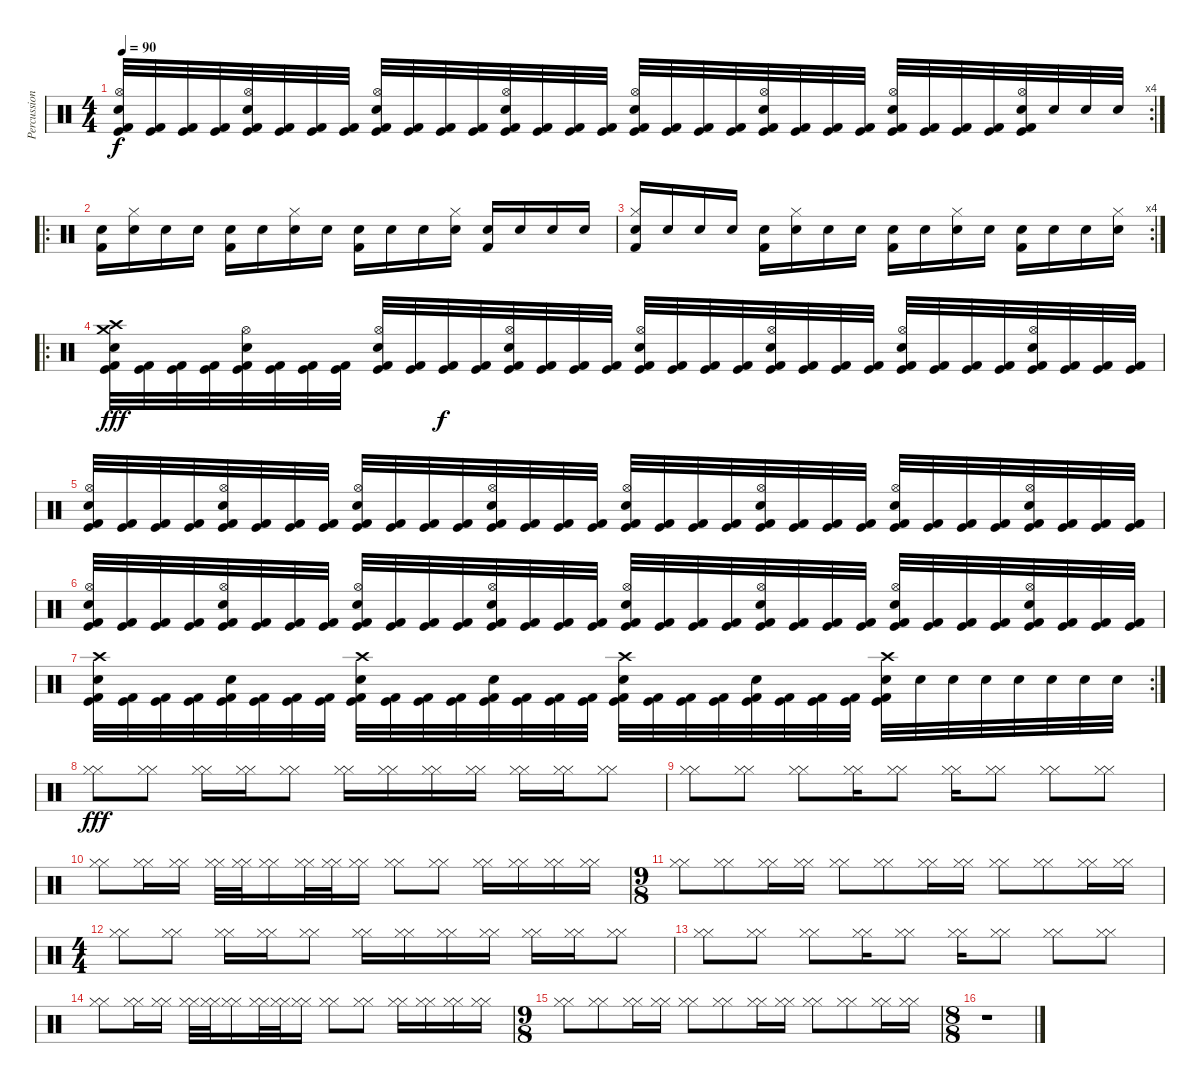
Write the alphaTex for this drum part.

\track ("Percussion" "Percussion") {instrument percussion}
\staff {score}
\articulation defaults
\rc 4
\ts (4 4)
\tempo 90
\clef neutral
\ks c
("Kick (hit) 2" "Hi-Hat (open)" "Electric Snare (hit)" "Kick (hit)").32{dy f} ("Kick (hit) 2" "Kick (hit)").32 ("Kick (hit) 2" "Kick (hit)").32 ("Kick (hit) 2" "Kick (hit)").32 ("Kick (hit) 2" "Hi-Hat (open)" "Kick (hit)" "Electric Snare (hit)").32 ("Kick (hit) 2" "Kick (hit)").32 ("Kick (hit) 2" "Kick (hit)").32 ("Kick (hit) 2" "Kick (hit)").32 ("Kick (hit) 2" "Hi-Hat (open)" "Electric Snare (hit)" "Kick (hit)").32 ("Kick (hit) 2" "Kick (hit)").32 ("Kick (hit) 2" "Kick (hit)").32 ("Kick (hit) 2" "Kick (hit)").32 ("Kick (hit) 2" "Hi-Hat (open)" "Electric Snare (hit)" "Kick (hit)").32 ("Kick (hit) 2" "Kick (hit)").32 ("Kick (hit) 2" "Kick (hit)").32 ("Kick (hit) 2" "Kick (hit)").32 ("Kick (hit) 2" "Hi-Hat (open)" "Electric Snare (hit)" "Kick (hit)").32 ("Kick (hit) 2" "Kick (hit)").32 ("Kick (hit) 2" "Kick (hit)").32 ("Kick (hit) 2" "Kick (hit)").32 ("Kick (hit) 2" "Electric Snare (hit)" "Hi-Hat (open)" "Kick (hit)").32 ("Kick (hit) 2" "Kick (hit)").32 ("Kick (hit) 2" "Kick (hit)").32 ("Kick (hit) 2" "Kick (hit)").32 ("Kick (hit) 2" "Hi-Hat (open)" "Electric Snare (hit)" "Kick (hit)").32 ("Kick (hit) 2" "Kick (hit)").32 ("Kick (hit) 2" "Kick (hit)").32 ("Kick (hit) 2" "Kick (hit)").32 ("Kick (hit) 2" "Hi-Hat (open)" "Electric Snare (hit)" "Kick (hit)").32 "Electric Snare (hit)".32 "Electric Snare (hit)".32 "Electric Snare (hit)".32 |
\ro
("Electric Snare (hit)" "Kick (hit) 2").16 ("Hi-Hat (closed)" "Snare (hit)").16 "Electric Snare (hit)".16 "Electric Snare (hit)".16 ("Electric Snare (hit)" "Kick (hit) 2").16 "Electric Snare (hit)".16 ("Hi-Hat (closed)" "Snare (hit)").16 "Electric Snare (hit)".16 ("Electric Snare (hit)" "Kick (hit) 2").16 "Electric Snare (hit)".16 "Electric Snare (hit)".16 ("Hi-Hat (closed)" "Snare (hit)").16 ("Electric Snare (hit)" "Kick (hit) 2").16 "Electric Snare (hit)".16 "Electric Snare (hit)".16 "Electric Snare (hit)".16 |
\rc 4
("Hi-Hat (closed)" "Snare (hit)" "Kick (hit) 2").16 "Electric Snare (hit)".16 "Electric Snare (hit)".16 "Electric Snare (hit)".16 ("Electric Snare (hit)" "Kick (hit) 2").16 ("Hi-Hat (closed)" "Snare (hit)").16 "Electric Snare (hit)".16 "Electric Snare (hit)".16 ("Electric Snare (hit)" "Kick (hit) 2").16 "Electric Snare (hit)".16 ("Hi-Hat (closed)" "Snare (hit)").16 "Electric Snare (hit)".16 ("Electric Snare (hit)" "Kick (hit) 2").16 "Electric Snare (hit)".16 "Electric Snare (hit)".16 ("Hi-Hat (closed)" "Snare (hit)").16 |
\ro
("Kick (hit) 2" "Crash medium (hit)" "Crash high (hit)" "Electric Snare (hit)" "Kick (hit)").32{dy fff} ("Kick (hit) 2" "Kick (hit)").32 ("Kick (hit) 2" "Kick (hit)").32 ("Kick (hit) 2" "Kick (hit)").32 ("Kick (hit) 2" "Hi-Hat (open)" "Electric Snare (hit)" "Kick (hit)").32 ("Kick (hit) 2" "Kick (hit)").32 ("Kick (hit) 2" "Kick (hit)").32 ("Kick (hit) 2" "Kick (hit)").32 ("Kick (hit) 2" "Hi-Hat (open)" "Electric Snare (hit)" "Kick (hit)").32 ("Kick (hit) 2" "Kick (hit)").32 ("Kick (hit) 2" "Kick (hit)").32{dy f} ("Kick (hit) 2" "Kick (hit)").32 ("Kick (hit) 2" "Hi-Hat (open)" "Electric Snare (hit)" "Kick (hit)").32 ("Kick (hit) 2" "Kick (hit)").32 ("Kick (hit) 2" "Kick (hit)").32 ("Kick (hit) 2" "Kick (hit)").32 ("Kick (hit) 2" "Hi-Hat (open)" "Electric Snare (hit)" "Kick (hit)").32 ("Kick (hit) 2" "Kick (hit)").32 ("Kick (hit) 2" "Kick (hit)").32 ("Kick (hit) 2" "Kick (hit)").32 ("Kick (hit) 2" "Hi-Hat (open)" "Electric Snare (hit)" "Kick (hit)").32 ("Kick (hit) 2" "Kick (hit)").32 ("Kick (hit) 2" "Kick (hit)").32 ("Kick (hit) 2" "Kick (hit)").32 ("Kick (hit) 2" "Hi-Hat (open)" "Electric Snare (hit)" "Kick (hit)").32 ("Kick (hit) 2" "Kick (hit)").32 ("Kick (hit) 2" "Kick (hit)").32 ("Kick (hit) 2" "Kick (hit)").32 ("Kick (hit) 2" "Hi-Hat (open)" "Electric Snare (hit)" "Kick (hit)").32 ("Kick (hit) 2" "Kick (hit)").32 ("Kick (hit) 2" "Kick (hit)").32 ("Kick (hit) 2" "Kick (hit)").32 |
("Kick (hit) 2" "Hi-Hat (open)" "Electric Snare (hit)" "Kick (hit)").32 ("Kick (hit) 2" "Kick (hit)").32 ("Kick (hit) 2" "Kick (hit)").32 ("Kick (hit) 2" "Kick (hit)").32 ("Kick (hit) 2" "Hi-Hat (open)" "Electric Snare (hit)" "Kick (hit)").32 ("Kick (hit) 2" "Kick (hit)").32 ("Kick (hit) 2" "Kick (hit)").32 ("Kick (hit) 2" "Kick (hit)").32 ("Kick (hit) 2" "Hi-Hat (open)" "Electric Snare (hit)" "Kick (hit)").32 ("Kick (hit) 2" "Kick (hit)").32 ("Kick (hit) 2" "Kick (hit)").32 ("Kick (hit) 2" "Kick (hit)").32 ("Kick (hit) 2" "Hi-Hat (open)" "Electric Snare (hit)" "Kick (hit)").32 ("Kick (hit) 2" "Kick (hit)").32 ("Kick (hit) 2" "Kick (hit)").32 ("Kick (hit) 2" "Kick (hit)").32 ("Kick (hit) 2" "Hi-Hat (open)" "Electric Snare (hit)" "Kick (hit)").32 ("Kick (hit) 2" "Kick (hit)").32 ("Kick (hit) 2" "Kick (hit)").32 ("Kick (hit) 2" "Kick (hit)").32 ("Kick (hit) 2" "Hi-Hat (open)" "Electric Snare (hit)" "Kick (hit)").32 ("Kick (hit) 2" "Kick (hit)").32 ("Kick (hit) 2" "Kick (hit)").32 ("Kick (hit) 2" "Kick (hit)").32 ("Kick (hit) 2" "Hi-Hat (open)" "Electric Snare (hit)" "Kick (hit)").32 ("Kick (hit) 2" "Kick (hit)").32 ("Kick (hit) 2" "Kick (hit)").32 ("Kick (hit) 2" "Kick (hit)").32 ("Kick (hit) 2" "Hi-Hat (open)" "Electric Snare (hit)" "Kick (hit)").32 ("Kick (hit) 2" "Kick (hit)").32 ("Kick (hit) 2" "Kick (hit)").32 ("Kick (hit) 2" "Kick (hit)").32 |
("Kick (hit) 2" "Hi-Hat (open)" "Electric Snare (hit)" "Kick (hit)").32 ("Kick (hit) 2" "Kick (hit)").32 ("Kick (hit) 2" "Kick (hit)").32 ("Kick (hit) 2" "Kick (hit)").32 ("Kick (hit) 2" "Hi-Hat (open)" "Electric Snare (hit)" "Kick (hit)").32 ("Kick (hit) 2" "Kick (hit)").32 ("Kick (hit) 2" "Kick (hit)").32 ("Kick (hit) 2" "Kick (hit)").32 ("Kick (hit) 2" "Hi-Hat (open)" "Electric Snare (hit)" "Kick (hit)").32 ("Kick (hit) 2" "Kick (hit)").32 ("Kick (hit) 2" "Kick (hit)").32 ("Kick (hit) 2" "Kick (hit)").32 ("Kick (hit) 2" "Hi-Hat (open)" "Electric Snare (hit)" "Kick (hit)").32 ("Kick (hit) 2" "Kick (hit)").32 ("Kick (hit) 2" "Kick (hit)").32 ("Kick (hit) 2" "Kick (hit)").32 ("Kick (hit) 2" "Hi-Hat (open)" "Electric Snare (hit)" "Kick (hit)").32 ("Kick (hit) 2" "Kick (hit)").32 ("Kick (hit) 2" "Kick (hit)").32 ("Kick (hit) 2" "Kick (hit)").32 ("Kick (hit) 2" "Hi-Hat (open)" "Electric Snare (hit)" "Kick (hit)").32 ("Kick (hit) 2" "Kick (hit)").32 ("Kick (hit) 2" "Kick (hit)").32 ("Kick (hit) 2" "Kick (hit)").32 ("Kick (hit) 2" "Hi-Hat (open)" "Electric Snare (hit)" "Kick (hit)").32 ("Kick (hit) 2" "Kick (hit)").32 ("Kick (hit) 2" "Kick (hit)").32 ("Kick (hit) 2" "Kick (hit)").32 ("Kick (hit) 2" "Hi-Hat (open)" "Electric Snare (hit)" "Kick (hit)").32 ("Kick (hit) 2" "Kick (hit)").32 ("Kick (hit) 2" "Kick (hit)").32 ("Kick (hit) 2" "Kick (hit)").32 |
\rc 2
("Crash high (hit)" "Electric Snare (hit)" "Kick (hit) 2" "Kick (hit)").32 ("Kick (hit)" "Kick (hit) 2").32 ("Kick (hit)" "Kick (hit) 2").32 ("Kick (hit)" "Kick (hit) 2").32 ("Electric Snare (hit)" "Kick (hit)" "Kick (hit) 2").32 ("Kick (hit)" "Kick (hit) 2").32 ("Kick (hit)" "Kick (hit) 2").32 ("Kick (hit)" "Kick (hit) 2").32 ("Crash high (hit)" "Electric Snare (hit)" "Kick (hit) 2" "Kick (hit)").32 ("Kick (hit)" "Kick (hit) 2").32 ("Kick (hit)" "Kick (hit) 2").32 ("Kick (hit)" "Kick (hit) 2").32 ("Electric Snare (hit)" "Kick (hit)" "Kick (hit) 2").32 ("Kick (hit)" "Kick (hit) 2").32 ("Kick (hit)" "Kick (hit) 2").32 ("Kick (hit)" "Kick (hit) 2").32 ("Crash high (hit)" "Electric Snare (hit)" "Kick (hit)" "Kick (hit) 2").32 ("Kick (hit)" "Kick (hit) 2").32 ("Kick (hit)" "Kick (hit) 2").32 ("Kick (hit)" "Kick (hit) 2").32 ("Electric Snare (hit)" "Kick (hit)" "Kick (hit) 2").32 ("Kick (hit)" "Kick (hit) 2").32 ("Kick (hit)" "Kick (hit) 2").32 ("Kick (hit)" "Kick (hit) 2").32 ("Crash high (hit)" "Electric Snare (hit)" "Kick (hit)" "Kick (hit) 2").32 "Electric Snare (hit)".32 "Electric Snare (hit)".32 "Electric Snare (hit)".32 "Electric Snare (hit)".32 "Electric Snare (hit)".32 "Electric Snare (hit)".32 "Electric Snare (hit)".32 |
("Hi-Hat (closed)" "Hi-Hat (closed)").8{dy fff} ("Hi-Hat (closed)" "Hi-Hat (closed)").8 ("Hi-Hat (closed)" "Hi-Hat (closed)").16 ("Hi-Hat (closed)" "Hi-Hat (closed)").16 ("Hi-Hat (closed)" "Hi-Hat (closed)").8 ("Hi-Hat (closed)" "Hi-Hat (closed)").16 ("Hi-Hat (closed)" "Hi-Hat (closed)").16 ("Hi-Hat (closed)" "Hi-Hat (closed)").16 ("Hi-Hat (closed)" "Hi-Hat (closed)").16 ("Hi-Hat (closed)" "Hi-Hat (closed)").16 ("Hi-Hat (closed)" "Hi-Hat (closed)").16 ("Hi-Hat (closed)" "Hi-Hat (closed)").8 |
("Hi-Hat (closed)" "Hi-Hat (closed)").8 ("Hi-Hat (closed)" "Hi-Hat (closed)").8 ("Hi-Hat (closed)" "Hi-Hat (closed)").8 ("Hi-Hat (closed)" "Hi-Hat (closed)").16 ("Hi-Hat (closed)" "Hi-Hat (closed)").8 ("Hi-Hat (closed)" "Hi-Hat (closed)").16 ("Hi-Hat (closed)" "Hi-Hat (closed)").8 ("Hi-Hat (closed)" "Hi-Hat (closed)").8 ("Hi-Hat (closed)" "Hi-Hat (closed)").8 |
("Hi-Hat (closed)" "Hi-Hat (closed)").8 ("Hi-Hat (closed)" "Hi-Hat (closed)").16 ("Hi-Hat (closed)" "Hi-Hat (closed)").16 ("Hi-Hat (closed)" "Hi-Hat (closed)").32 ("Hi-Hat (closed)" "Hi-Hat (closed)").32 ("Hi-Hat (closed)" "Hi-Hat (closed)").16 ("Hi-Hat (closed)" "Hi-Hat (closed)").32 ("Hi-Hat (closed)" "Hi-Hat (closed)").32 ("Hi-Hat (closed)" "Hi-Hat (closed)").16 ("Hi-Hat (closed)" "Hi-Hat (closed)").8 ("Hi-Hat (closed)" "Hi-Hat (closed)").8 ("Hi-Hat (closed)" "Hi-Hat (closed)").16 ("Hi-Hat (closed)" "Hi-Hat (closed)").16 ("Hi-Hat (closed)" "Hi-Hat (closed)").16 ("Hi-Hat (closed)" "Hi-Hat (closed)").16 |
\ts (9 8)
("Hi-Hat (closed)" "Hi-Hat (closed)").8 ("Hi-Hat (closed)" "Hi-Hat (closed)").8 ("Hi-Hat (closed)" "Hi-Hat (closed)").16 ("Hi-Hat (closed)" "Hi-Hat (closed)").16 ("Hi-Hat (closed)" "Hi-Hat (closed)").8 ("Hi-Hat (closed)" "Hi-Hat (closed)").8 ("Hi-Hat (closed)" "Hi-Hat (closed)").16 ("Hi-Hat (closed)" "Hi-Hat (closed)").16 ("Hi-Hat (closed)" "Hi-Hat (closed)").8 ("Hi-Hat (closed)" "Hi-Hat (closed)").8 ("Hi-Hat (closed)" "Hi-Hat (closed)").16 ("Hi-Hat (closed)" "Hi-Hat (closed)").16 |
\ts (4 4)
("Hi-Hat (closed)" "Hi-Hat (closed)").8 ("Hi-Hat (closed)" "Hi-Hat (closed)").8 ("Hi-Hat (closed)" "Hi-Hat (closed)").16 ("Hi-Hat (closed)" "Hi-Hat (closed)").16 ("Hi-Hat (closed)" "Hi-Hat (closed)").8 ("Hi-Hat (closed)" "Hi-Hat (closed)").16 ("Hi-Hat (closed)" "Hi-Hat (closed)").16 ("Hi-Hat (closed)" "Hi-Hat (closed)").16 ("Hi-Hat (closed)" "Hi-Hat (closed)").16 ("Hi-Hat (closed)" "Hi-Hat (closed)").16 ("Hi-Hat (closed)" "Hi-Hat (closed)").16 ("Hi-Hat (closed)" "Hi-Hat (closed)").8 |
("Hi-Hat (closed)" "Hi-Hat (closed)").8 ("Hi-Hat (closed)" "Hi-Hat (closed)").8 ("Hi-Hat (closed)" "Hi-Hat (closed)").8 ("Hi-Hat (closed)" "Hi-Hat (closed)").16 ("Hi-Hat (closed)" "Hi-Hat (closed)").8 ("Hi-Hat (closed)" "Hi-Hat (closed)").16 ("Hi-Hat (closed)" "Hi-Hat (closed)").8 ("Hi-Hat (closed)" "Hi-Hat (closed)").8 ("Hi-Hat (closed)" "Hi-Hat (closed)").8 |
("Hi-Hat (closed)" "Hi-Hat (closed)").8 ("Hi-Hat (closed)" "Hi-Hat (closed)").16 ("Hi-Hat (closed)" "Hi-Hat (closed)").16 ("Hi-Hat (closed)" "Hi-Hat (closed)").32 ("Hi-Hat (closed)" "Hi-Hat (closed)").32 ("Hi-Hat (closed)" "Hi-Hat (closed)").16 ("Hi-Hat (closed)" "Hi-Hat (closed)").32 ("Hi-Hat (closed)" "Hi-Hat (closed)").32 ("Hi-Hat (closed)" "Hi-Hat (closed)").16 ("Hi-Hat (closed)" "Hi-Hat (closed)").8 ("Hi-Hat (closed)" "Hi-Hat (closed)").8 ("Hi-Hat (closed)" "Hi-Hat (closed)").16 ("Hi-Hat (closed)" "Hi-Hat (closed)").16 ("Hi-Hat (closed)" "Hi-Hat (closed)").16 ("Hi-Hat (closed)" "Hi-Hat (closed)").16 |
\ts (9 8)
("Hi-Hat (closed)" "Hi-Hat (closed)").8 ("Hi-Hat (closed)" "Hi-Hat (closed)").8 ("Hi-Hat (closed)" "Hi-Hat (closed)").16 ("Hi-Hat (closed)" "Hi-Hat (closed)").16 ("Hi-Hat (closed)" "Hi-Hat (closed)").8 ("Hi-Hat (closed)" "Hi-Hat (closed)").8 ("Hi-Hat (closed)" "Hi-Hat (closed)").16 ("Hi-Hat (closed)" "Hi-Hat (closed)").16 ("Hi-Hat (closed)" "Hi-Hat (closed)").8 ("Hi-Hat (closed)" "Hi-Hat (closed)").8 ("Hi-Hat (closed)" "Hi-Hat (closed)").16 ("Hi-Hat (closed)" "Hi-Hat (closed)").16 |
\ts (8 8)
r.1
